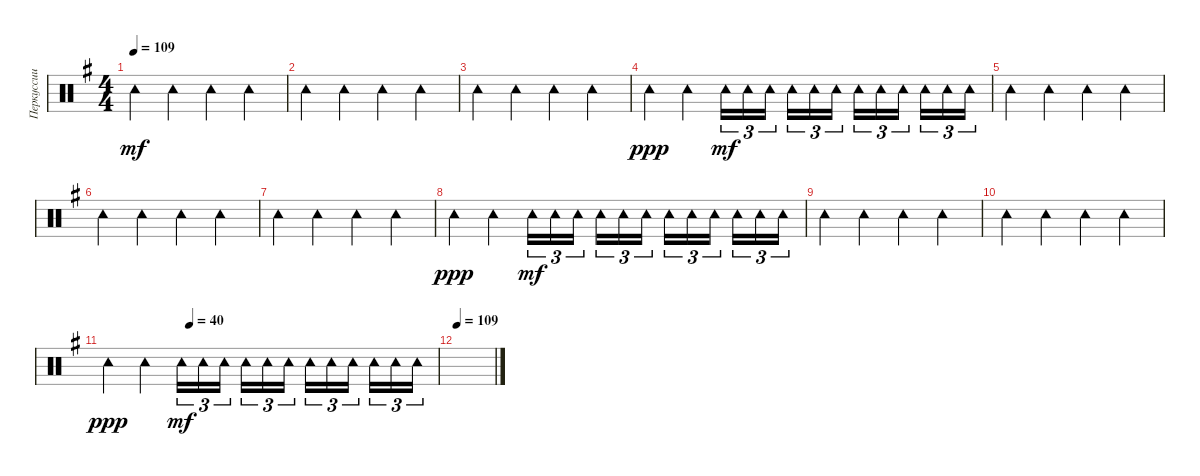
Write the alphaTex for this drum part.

\track ("Перкуссии" "Перкуссии") {instrument percussion}
\staff {score}
\articulation defaults
\ts (4 4)
\tempo 109
\clef neutral
\ks eminor "Tambourine (hit)".4{dy mf} "Tambourine (hit)".4 "Tambourine (hit)".4 "Tambourine (hit)".4
|
"Tambourine (hit)".4 "Tambourine (hit)".4 "Tambourine (hit)".4 "Tambourine (hit)".4 |
"Tambourine (hit)".4 "Tambourine (hit)".4 "Tambourine (hit)".4 "Tambourine (hit)".4 |
"Tambourine (hit)".4{dy ppp} "Tambourine (hit)".4 "Tambourine (hit)".16{tu (3 2) dy mf volume 0} "Tambourine (hit)".16{tu (3 2) volume 14} "Tambourine (hit)".16{tu (3 2) beam splitsecondary} "Tambourine (hit)".16{tu (3 2)} "Tambourine (hit)".16{tu (3 2)} "Tambourine (hit)".16{tu (3 2)} "Tambourine (hit)".16{tu (3 2)} "Tambourine (hit)".16{tu (3 2)} "Tambourine (hit)".16{tu (3 2) beam splitsecondary} "Tambourine (hit)".16{tu (3 2)} "Tambourine (hit)".16{tu (3 2)} "Tambourine (hit)".16{tu (3 2)} |
"Tambourine (hit)".4 "Tambourine (hit)".4 "Tambourine (hit)".4 "Tambourine (hit)".4 |
"Tambourine (hit)".4 "Tambourine (hit)".4 "Tambourine (hit)".4 "Tambourine (hit)".4 |
"Tambourine (hit)".4 "Tambourine (hit)".4 "Tambourine (hit)".4 "Tambourine (hit)".4 |
"Tambourine (hit)".4{dy ppp} "Tambourine (hit)".4 "Tambourine (hit)".16{tu (3 2) dy mf volume 0} "Tambourine (hit)".16{tu (3 2) volume 14} "Tambourine (hit)".16{tu (3 2) beam splitsecondary} "Tambourine (hit)".16{tu (3 2)} "Tambourine (hit)".16{tu (3 2)} "Tambourine (hit)".16{tu (3 2)} "Tambourine (hit)".16{tu (3 2)} "Tambourine (hit)".16{tu (3 2)} "Tambourine (hit)".16{tu (3 2) beam splitsecondary} "Tambourine (hit)".16{tu (3 2)} "Tambourine (hit)".16{tu (3 2)} "Tambourine (hit)".16{tu (3 2)} |
"Tambourine (hit)".4 "Tambourine (hit)".4 "Tambourine (hit)".4 "Tambourine (hit)".4 |
"Tambourine (hit)".4 "Tambourine (hit)".4 "Tambourine (hit)".4 "Tambourine (hit)".4 |
\tempo (40 0.25)
"Tambourine (hit)".4{dy ppp} "Tambourine (hit)".4 "Tambourine (hit)".16{tu (3 2) dy mf volume 0} "Tambourine (hit)".16{tu (3 2) volume 14} "Tambourine (hit)".16{tu (3 2) beam splitsecondary} "Tambourine (hit)".16{tu (3 2)} "Tambourine (hit)".16{tu (3 2)} "Tambourine (hit)".16{tu (3 2)} "Tambourine (hit)".16{tu (3 2)} "Tambourine (hit)".16{tu (3 2)} "Tambourine (hit)".16{tu (3 2) beam splitsecondary} "Tambourine (hit)".16{tu (3 2)} "Tambourine (hit)".16{tu (3 2)} "Tambourine (hit)".16{tu (3 2)} |
\tempo 109
